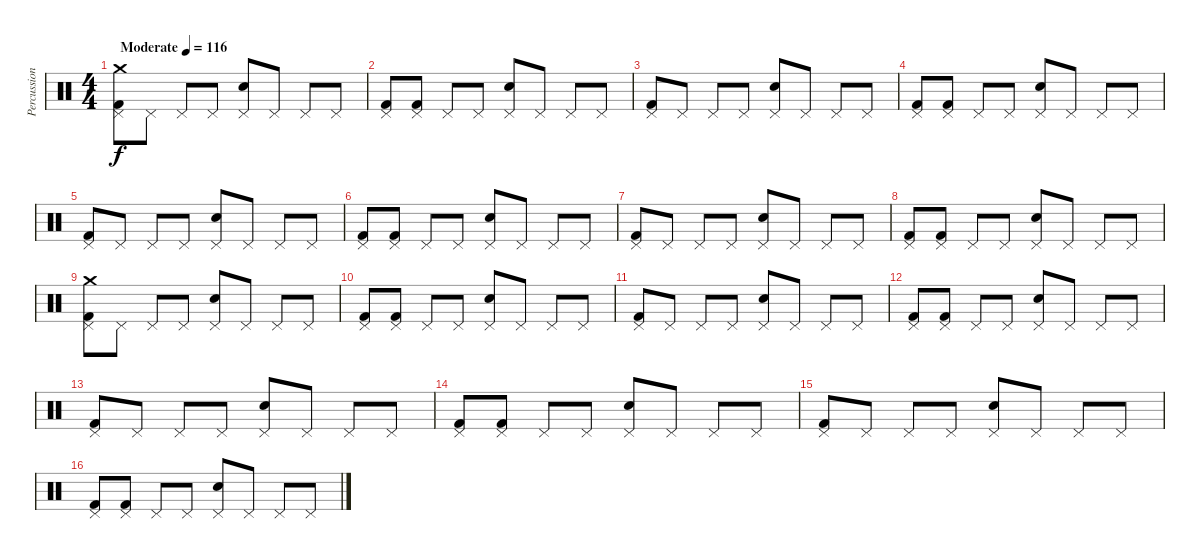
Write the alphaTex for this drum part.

\track ("Percussion" "Percussion") {instrument percussion}
\staff {score}
\articulation defaults
\ts (4 4)
\tempo (116 "Moderate")
\clef neutral
\ks c
("Crash medium (hit)" "Pedal Hi-Hat (hit)" "Kick (hit) 2").8{dy f} "Pedal Hi-Hat (hit)".8 "Pedal Hi-Hat (hit)".8 "Pedal Hi-Hat (hit)".8 ("Pedal Hi-Hat (hit)" "Snare (hit) 2").8 "Pedal Hi-Hat (hit)".8 "Pedal Hi-Hat (hit)".8 "Pedal Hi-Hat (hit)".8 |
("Pedal Hi-Hat (hit)" "Kick (hit) 2").8 ("Pedal Hi-Hat (hit)" "Kick (hit) 2").8 "Pedal Hi-Hat (hit)".8 "Pedal Hi-Hat (hit)".8 ("Pedal Hi-Hat (hit)" "Snare (hit) 2").8 "Pedal Hi-Hat (hit)".8 "Pedal Hi-Hat (hit)".8 "Pedal Hi-Hat (hit)".8 |
("Pedal Hi-Hat (hit)" "Kick (hit) 2").8 "Pedal Hi-Hat (hit)".8 "Pedal Hi-Hat (hit)".8 "Pedal Hi-Hat (hit)".8 ("Pedal Hi-Hat (hit)" "Snare (hit) 2").8 "Pedal Hi-Hat (hit)".8 "Pedal Hi-Hat (hit)".8 "Pedal Hi-Hat (hit)".8 |
("Pedal Hi-Hat (hit)" "Kick (hit) 2").8 ("Pedal Hi-Hat (hit)" "Kick (hit) 2").8 "Pedal Hi-Hat (hit)".8 "Pedal Hi-Hat (hit)".8 ("Pedal Hi-Hat (hit)" "Snare (hit) 2").8 "Pedal Hi-Hat (hit)".8 "Pedal Hi-Hat (hit)".8 "Pedal Hi-Hat (hit)".8 |
("Pedal Hi-Hat (hit)" "Kick (hit) 2").8 "Pedal Hi-Hat (hit)".8 "Pedal Hi-Hat (hit)".8 "Pedal Hi-Hat (hit)".8 ("Pedal Hi-Hat (hit)" "Snare (hit) 2").8 "Pedal Hi-Hat (hit)".8 "Pedal Hi-Hat (hit)".8 "Pedal Hi-Hat (hit)".8 |
("Pedal Hi-Hat (hit)" "Kick (hit) 2").8 ("Pedal Hi-Hat (hit)" "Kick (hit) 2").8 "Pedal Hi-Hat (hit)".8 "Pedal Hi-Hat (hit)".8 ("Pedal Hi-Hat (hit)" "Snare (hit) 2").8 "Pedal Hi-Hat (hit)".8 "Pedal Hi-Hat (hit)".8 "Pedal Hi-Hat (hit)".8 |
("Pedal Hi-Hat (hit)" "Kick (hit) 2").8 "Pedal Hi-Hat (hit)".8 "Pedal Hi-Hat (hit)".8 "Pedal Hi-Hat (hit)".8 ("Pedal Hi-Hat (hit)" "Snare (hit) 2").8 "Pedal Hi-Hat (hit)".8 "Pedal Hi-Hat (hit)".8 "Pedal Hi-Hat (hit)".8 |
("Pedal Hi-Hat (hit)" "Kick (hit) 2").8 ("Pedal Hi-Hat (hit)" "Kick (hit) 2").8 "Pedal Hi-Hat (hit)".8 "Pedal Hi-Hat (hit)".8 ("Pedal Hi-Hat (hit)" "Snare (hit) 2").8 "Pedal Hi-Hat (hit)".8 "Pedal Hi-Hat (hit)".8 "Pedal Hi-Hat (hit)".8 |
("Crash medium (hit)" "Pedal Hi-Hat (hit)" "Kick (hit) 2").8 "Pedal Hi-Hat (hit)".8 "Pedal Hi-Hat (hit)".8 "Pedal Hi-Hat (hit)".8 ("Pedal Hi-Hat (hit)" "Snare (hit) 2").8 "Pedal Hi-Hat (hit)".8 "Pedal Hi-Hat (hit)".8 "Pedal Hi-Hat (hit)".8 |
("Pedal Hi-Hat (hit)" "Kick (hit) 2").8 ("Pedal Hi-Hat (hit)" "Kick (hit) 2").8 "Pedal Hi-Hat (hit)".8 "Pedal Hi-Hat (hit)".8 ("Pedal Hi-Hat (hit)" "Snare (hit) 2").8 "Pedal Hi-Hat (hit)".8 "Pedal Hi-Hat (hit)".8 "Pedal Hi-Hat (hit)".8 |
("Pedal Hi-Hat (hit)" "Kick (hit) 2").8 "Pedal Hi-Hat (hit)".8 "Pedal Hi-Hat (hit)".8 "Pedal Hi-Hat (hit)".8 ("Pedal Hi-Hat (hit)" "Snare (hit) 2").8 "Pedal Hi-Hat (hit)".8 "Pedal Hi-Hat (hit)".8 "Pedal Hi-Hat (hit)".8 |
("Pedal Hi-Hat (hit)" "Kick (hit) 2").8 ("Pedal Hi-Hat (hit)" "Kick (hit) 2").8 "Pedal Hi-Hat (hit)".8 "Pedal Hi-Hat (hit)".8 ("Pedal Hi-Hat (hit)" "Snare (hit) 2").8 "Pedal Hi-Hat (hit)".8 "Pedal Hi-Hat (hit)".8 "Pedal Hi-Hat (hit)".8 |
("Pedal Hi-Hat (hit)" "Kick (hit) 2").8 "Pedal Hi-Hat (hit)".8 "Pedal Hi-Hat (hit)".8 "Pedal Hi-Hat (hit)".8 ("Pedal Hi-Hat (hit)" "Snare (hit) 2").8 "Pedal Hi-Hat (hit)".8 "Pedal Hi-Hat (hit)".8 "Pedal Hi-Hat (hit)".8 |
("Pedal Hi-Hat (hit)" "Kick (hit) 2").8 ("Pedal Hi-Hat (hit)" "Kick (hit) 2").8 "Pedal Hi-Hat (hit)".8 "Pedal Hi-Hat (hit)".8 ("Pedal Hi-Hat (hit)" "Snare (hit) 2").8 "Pedal Hi-Hat (hit)".8 "Pedal Hi-Hat (hit)".8 "Pedal Hi-Hat (hit)".8 |
("Pedal Hi-Hat (hit)" "Kick (hit) 2").8 "Pedal Hi-Hat (hit)".8 "Pedal Hi-Hat (hit)".8 "Pedal Hi-Hat (hit)".8 ("Pedal Hi-Hat (hit)" "Snare (hit) 2").8 "Pedal Hi-Hat (hit)".8 "Pedal Hi-Hat (hit)".8 "Pedal Hi-Hat (hit)".8 |
("Pedal Hi-Hat (hit)" "Kick (hit) 2").8 ("Pedal Hi-Hat (hit)" "Kick (hit) 2").8 "Pedal Hi-Hat (hit)".8 "Pedal Hi-Hat (hit)".8 ("Pedal Hi-Hat (hit)" "Snare (hit) 2").8 "Pedal Hi-Hat (hit)".8 "Pedal Hi-Hat (hit)".8 "Pedal Hi-Hat (hit)".8
